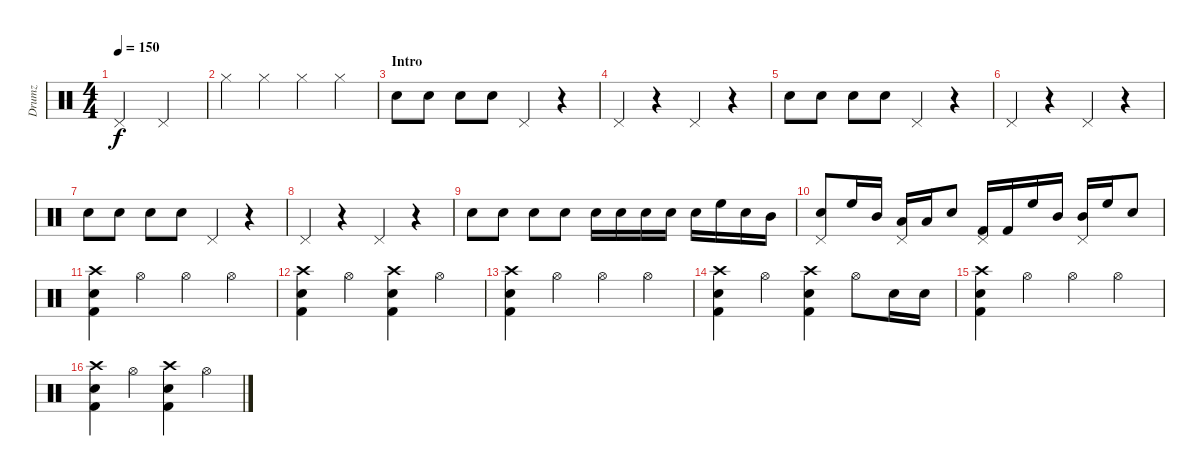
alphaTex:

\track ("Drumz" "Drumz") {instrument percussion}
\staff {score}
\articulation defaults
\ts (4 4)
\tempo 150
\clef neutral
\ks c "Pedal Hi-Hat (hit)".2{dy f} "Pedal Hi-Hat (hit)".2
|
"Hi-Hat (closed)".4 "Hi-Hat (closed)".4 "Hi-Hat (closed)".4 "Hi-Hat (closed)".4 |
\section ("" "Intro")
"Snare (hit) 2".8 "Snare (hit) 2".8 "Snare (hit) 2".8 "Snare (hit) 2".8 "Pedal Hi-Hat (hit)".4 r.4 |
"Pedal Hi-Hat (hit)".4 r.4 "Pedal Hi-Hat (hit)".4 r.4 |
"Snare (hit) 2".8 "Snare (hit) 2".8 "Snare (hit) 2".8 "Snare (hit) 2".8 "Pedal Hi-Hat (hit)".4 r.4 |
"Pedal Hi-Hat (hit)".4 r.4 "Pedal Hi-Hat (hit)".4 r.4 |
"Snare (hit) 2".8 "Snare (hit) 2".8 "Snare (hit) 2".8 "Snare (hit) 2".8 "Pedal Hi-Hat (hit)".4 r.4 |
"Pedal Hi-Hat (hit)".4 r.4 "Pedal Hi-Hat (hit)".4 r.4 |
"Snare (hit) 2".8 "Snare (hit) 2".8 "Snare (hit) 2".8 "Snare (hit) 2".8 "Snare (hit) 2".16 "Snare (hit) 2".16 "Snare (hit) 2".16 "Snare (hit) 2".16 "Snare (hit) 2".16 "High Floor Tom (hit)".16 "Snare (hit) 2".16 "Mid Tom (hit)".16 |
("Pedal Hi-Hat (hit)" "Snare (hit) 2").8 "High Floor Tom (hit)".16 "Mid Tom (hit)".16 ("Pedal Hi-Hat (hit)" "Low Tom (hit)").16 "Low Floor Tom (hit)".16 "Snare (hit) 2".8 ("Pedal Hi-Hat (hit)" "Kick (hit) 2").16 "Kick (hit) 2".16 "High Floor Tom (hit)".16 "Mid Tom (hit)".16 ("Pedal Hi-Hat (hit)" "Mid Tom (hit)").16 "High Floor Tom (hit)".16 "Snare (hit) 2".8 |
("Crash high (hit)" "Snare (hit) 2" "Kick (hit) 2").4 "Hi-Hat (open)".4 "Hi-Hat (open)".4 "Hi-Hat (open)".4 |
("Crash high (hit)" "Snare (hit) 2" "Kick (hit) 2").4 "Hi-Hat (open)".4 ("Crash high (hit)" "Snare (hit) 2" "Kick (hit) 2").4 "Hi-Hat (open)".4 |
("Crash high (hit)" "Snare (hit) 2" "Kick (hit) 2").4 "Hi-Hat (open)".4 "Hi-Hat (open)".4 "Hi-Hat (open)".4 |
("Crash high (hit)" "Snare (hit) 2" "Kick (hit) 2").4 "Hi-Hat (open)".4 ("Crash high (hit)" "Snare (hit) 2" "Kick (hit) 2").4 "Hi-Hat (open)".8 "Snare (hit) 2".16 "Snare (hit) 2".16 |
("Crash high (hit)" "Snare (hit) 2" "Kick (hit) 2").4 "Hi-Hat (open)".4 "Hi-Hat (open)".4 "Hi-Hat (open)".4 |
("Crash high (hit)" "Snare (hit) 2" "Kick (hit) 2").4 "Hi-Hat (open)".4 ("Crash high (hit)" "Snare (hit) 2" "Kick (hit) 2").4 "Hi-Hat (open)".4
